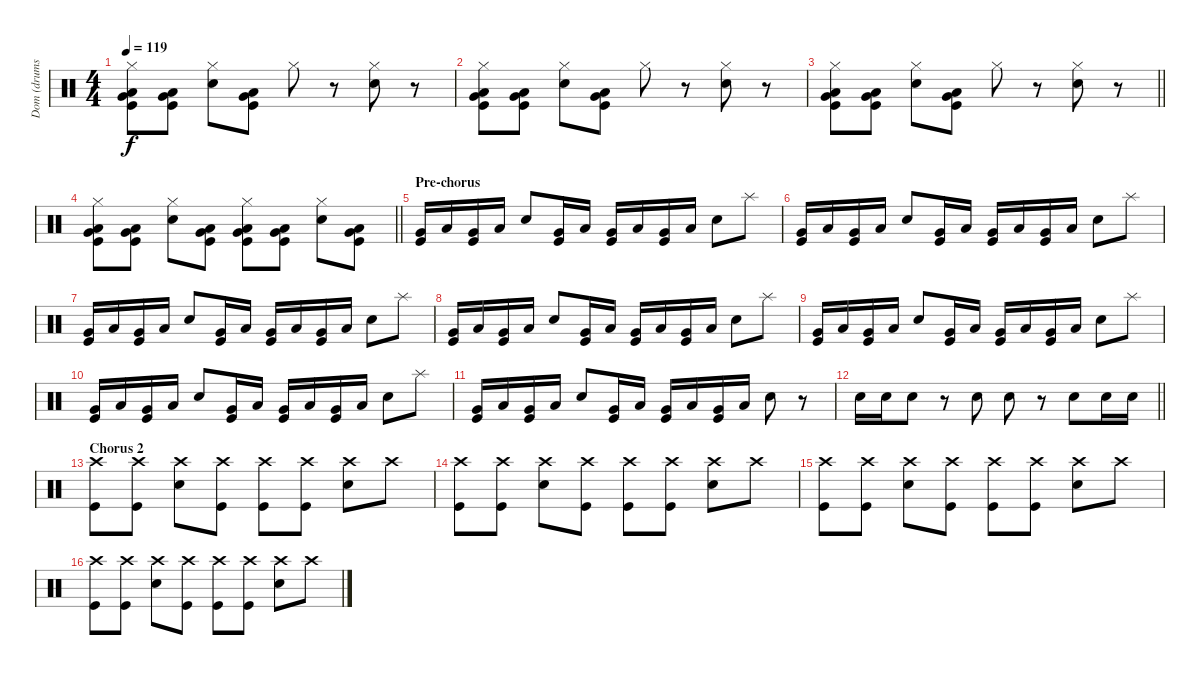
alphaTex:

\track ("Dom (drums)" "Dom (drums") {instrument percussion}
\staff {score}
\articulation defaults
\ts (4 4)
\tempo 119
\clef neutral
\ks c
("Hi-Hat (closed)" "Low Tom (hit)" "Very Low Tom (hit)" "Kick (hit)").8{dy f} ("Low Tom (hit)" "Very Low Tom (hit)" "Kick (hit)").8 ("Hi-Hat (closed)" "Snare (hit) 2").8 ("Low Tom (hit)" "Very Low Tom (hit)" "Kick (hit)").8 "Hi-Hat (closed)".8 r.8 ("Hi-Hat (closed)" "Snare (hit) 2").8 r.8 |
("Hi-Hat (closed)" "Low Tom (hit)" "Very Low Tom (hit)" "Kick (hit)").8 ("Low Tom (hit)" "Very Low Tom (hit)" "Kick (hit)").8 ("Hi-Hat (closed)" "Snare (hit) 2").8 ("Low Tom (hit)" "Very Low Tom (hit)" "Kick (hit)").8 "Hi-Hat (closed)".8 r.8 ("Hi-Hat (closed)" "Snare (hit) 2").8 r.8 |
\barLineRight lightlight
("Hi-Hat (closed)" "Low Tom (hit)" "Very Low Tom (hit)" "Kick (hit)").8 ("Low Tom (hit)" "Very Low Tom (hit)" "Kick (hit)").8 ("Hi-Hat (closed)" "Snare (hit) 2").8 ("Low Tom (hit)" "Very Low Tom (hit)" "Kick (hit)").8 "Hi-Hat (closed)".8 r.8 ("Hi-Hat (closed)" "Snare (hit) 2").8 r.8 |
\barLineRight lightlight
("Hi-Hat (closed)" "Low Tom (hit)" "Very Low Tom (hit)" "Kick (hit)").8 ("Low Tom (hit)" "Very Low Tom (hit)" "Kick (hit)").8 ("Hi-Hat (closed)" "Snare (hit) 2").8 ("Low Tom (hit)" "Very Low Tom (hit)" "Kick (hit)").8 ("Hi-Hat (closed)" "Low Tom (hit)" "Very Low Tom (hit)" "Kick (hit)").8 ("Low Tom (hit)" "Very Low Tom (hit)" "Kick (hit)").8 ("Hi-Hat (closed)" "Snare (hit) 2").8 ("Low Tom (hit)" "Very Low Tom (hit)" "Kick (hit)").8 |
\section ("" "Pre-chorus")
("Very Low Tom (hit)" "Kick (hit)").16 "Low Tom (hit)".16 ("Very Low Tom (hit)" "Kick (hit)").16 "Low Tom (hit)".16 "Snare (hit) 2".8 ("Very Low Tom (hit)" "Kick (hit)").16 "Low Tom (hit)".16 ("Very Low Tom (hit)" "Kick (hit)").16 "Low Tom (hit)".16 ("Very Low Tom (hit)" "Kick (hit)").16 "Low Tom (hit)".16 "Snare (hit) 2".8 "Splash (hit)".8 |
("Very Low Tom (hit)" "Kick (hit)").16 "Low Tom (hit)".16 ("Very Low Tom (hit)" "Kick (hit)").16 "Low Tom (hit)".16 "Snare (hit) 2".8 ("Very Low Tom (hit)" "Kick (hit)").16 "Low Tom (hit)".16 ("Very Low Tom (hit)" "Kick (hit)").16 "Low Tom (hit)".16 ("Very Low Tom (hit)" "Kick (hit)").16 "Low Tom (hit)".16 "Snare (hit) 2".8 "Splash (hit)".8 |
("Very Low Tom (hit)" "Kick (hit)").16 "Low Tom (hit)".16 ("Very Low Tom (hit)" "Kick (hit)").16 "Low Tom (hit)".16 "Snare (hit) 2".8 ("Very Low Tom (hit)" "Kick (hit)").16 "Low Tom (hit)".16 ("Very Low Tom (hit)" "Kick (hit)").16 "Low Tom (hit)".16 ("Very Low Tom (hit)" "Kick (hit)").16 "Low Tom (hit)".16 "Snare (hit) 2".8 "Splash (hit)".8 |
("Very Low Tom (hit)" "Kick (hit)").16 "Low Tom (hit)".16 ("Very Low Tom (hit)" "Kick (hit)").16 "Low Tom (hit)".16 "Snare (hit) 2".8 ("Very Low Tom (hit)" "Kick (hit)").16 "Low Tom (hit)".16 ("Very Low Tom (hit)" "Kick (hit)").16 "Low Tom (hit)".16 ("Very Low Tom (hit)" "Kick (hit)").16 "Low Tom (hit)".16 "Snare (hit) 2".8 "Splash (hit)".8 |
("Very Low Tom (hit)" "Kick (hit)").16 "Low Tom (hit)".16 ("Very Low Tom (hit)" "Kick (hit)").16 "Low Tom (hit)".16 "Snare (hit) 2".8 ("Very Low Tom (hit)" "Kick (hit)").16 "Low Tom (hit)".16 ("Very Low Tom (hit)" "Kick (hit)").16 "Low Tom (hit)".16 ("Very Low Tom (hit)" "Kick (hit)").16 "Low Tom (hit)".16 "Snare (hit) 2".8 "Splash (hit)".8 |
("Very Low Tom (hit)" "Kick (hit)").16 "Low Tom (hit)".16 ("Very Low Tom (hit)" "Kick (hit)").16 "Low Tom (hit)".16 "Snare (hit) 2".8 ("Very Low Tom (hit)" "Kick (hit)").16 "Low Tom (hit)".16 ("Very Low Tom (hit)" "Kick (hit)").16 "Low Tom (hit)".16 ("Very Low Tom (hit)" "Kick (hit)").16 "Low Tom (hit)".16 "Snare (hit) 2".8 "Splash (hit)".8 |
("Very Low Tom (hit)" "Kick (hit)").16 "Low Tom (hit)".16 ("Very Low Tom (hit)" "Kick (hit)").16 "Low Tom (hit)".16 "Snare (hit) 2".8 ("Very Low Tom (hit)" "Kick (hit)").16 "Low Tom (hit)".16 ("Very Low Tom (hit)" "Kick (hit)").16 "Low Tom (hit)".16 ("Very Low Tom (hit)" "Kick (hit)").16 "Low Tom (hit)".16 "Snare (hit) 2".8 r.8 |
\barLineRight lightlight "Snare (hit) 2".16 "Snare (hit) 2".16 "Snare (hit) 2".8
r.8 "Snare (hit) 2".8 "Snare (hit) 2".8 r.8 "Snare (hit) 2".8 "Snare (hit) 2".16 "Snare (hit) 2".16 |
\section ("" "Chorus 2")
("Crash high (hit)" "Kick (hit)").8 ("Crash high (hit)" "Kick (hit)").8 ("Crash high (hit)" "Snare (hit) 2").8 ("Crash high (hit)" "Kick (hit)").8 ("Crash high (hit)" "Kick (hit)").8 ("Crash high (hit)" "Kick (hit)").8 ("Crash high (hit)" "Snare (hit) 2").8 "Crash high (hit)".8 |
("Crash high (hit)" "Kick (hit)").8 ("Crash high (hit)" "Kick (hit)").8 ("Crash high (hit)" "Snare (hit) 2").8 ("Crash high (hit)" "Kick (hit)").8 ("Crash high (hit)" "Kick (hit)").8 ("Crash high (hit)" "Kick (hit)").8 ("Crash high (hit)" "Snare (hit) 2").8 "Crash high (hit)".8 |
("Crash high (hit)" "Kick (hit)").8 ("Crash high (hit)" "Kick (hit)").8 ("Crash high (hit)" "Snare (hit) 2").8 ("Crash high (hit)" "Kick (hit)").8 ("Crash high (hit)" "Kick (hit)").8 ("Crash high (hit)" "Kick (hit)").8 ("Crash high (hit)" "Snare (hit) 2").8 "Crash high (hit)".8 |
("Crash high (hit)" "Kick (hit)").8 ("Crash high (hit)" "Kick (hit)").8 ("Crash high (hit)" "Snare (hit) 2").8 ("Crash high (hit)" "Kick (hit)").8 ("Crash high (hit)" "Kick (hit)").8 ("Crash high (hit)" "Kick (hit)").8 ("Crash high (hit)" "Snare (hit) 2").8 "Crash high (hit)".8
